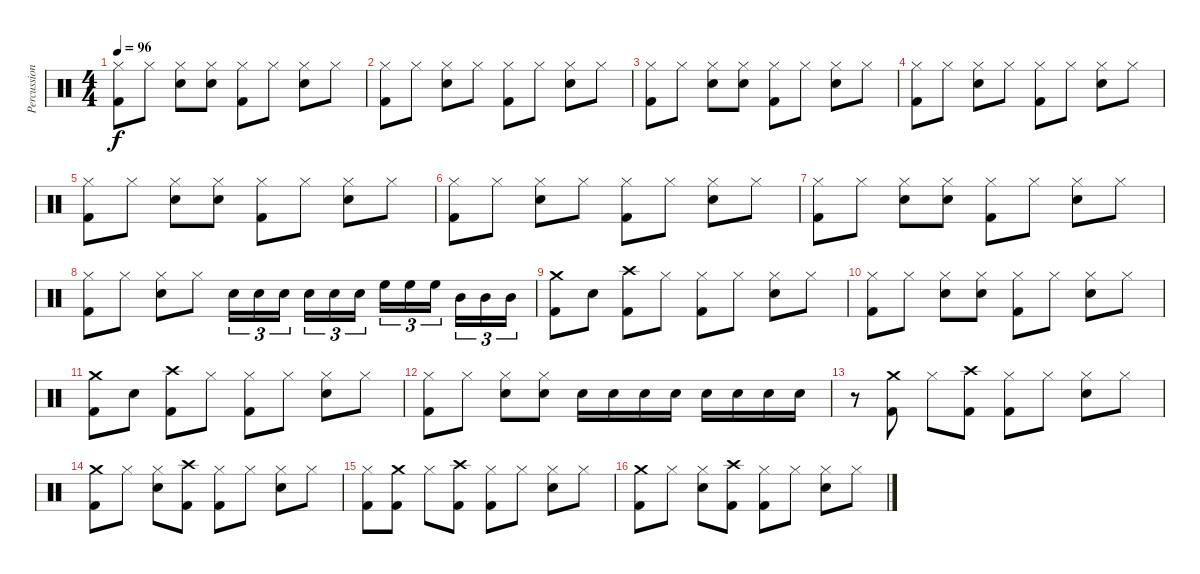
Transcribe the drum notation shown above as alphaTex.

\track ("Percussion" "Percussion") {instrument percussion}
\staff {score}
\articulation defaults
\ts (4 4)
\tempo 96
\clef neutral
\ks c
("Hi-Hat (closed)" "Kick (hit) 2").8{dy f} "Hi-Hat (closed)".8 ("Hi-Hat (closed)" "Snare (hit) 2").8 ("Hi-Hat (closed)" "Snare (hit) 2").8 ("Hi-Hat (closed)" "Kick (hit) 2").8 "Hi-Hat (closed)".8 ("Hi-Hat (closed)" "Snare (hit) 2").8 "Hi-Hat (closed)".8 |
("Hi-Hat (closed)" "Kick (hit) 2").8 "Hi-Hat (closed)".8 ("Hi-Hat (closed)" "Snare (hit) 2").8 "Hi-Hat (closed)".8 ("Hi-Hat (closed)" "Kick (hit) 2").8 "Hi-Hat (closed)".8 ("Hi-Hat (closed)" "Snare (hit) 2").8 "Hi-Hat (closed)".8 |
("Hi-Hat (closed)" "Kick (hit) 2").8 "Hi-Hat (closed)".8 ("Hi-Hat (closed)" "Snare (hit) 2").8 ("Hi-Hat (closed)" "Snare (hit) 2").8 ("Hi-Hat (closed)" "Kick (hit) 2").8 "Hi-Hat (closed)".8 ("Hi-Hat (closed)" "Snare (hit) 2").8 "Hi-Hat (closed)".8 |
("Hi-Hat (closed)" "Kick (hit) 2").8 "Hi-Hat (closed)".8 ("Hi-Hat (closed)" "Snare (hit) 2").8 "Hi-Hat (closed)".8 ("Hi-Hat (closed)" "Kick (hit) 2").8 "Hi-Hat (closed)".8 ("Hi-Hat (closed)" "Snare (hit) 2").8 "Hi-Hat (closed)".8 |
("Hi-Hat (closed)" "Kick (hit) 2").8 "Hi-Hat (closed)".8 ("Hi-Hat (closed)" "Snare (hit) 2").8 ("Hi-Hat (closed)" "Snare (hit) 2").8 ("Hi-Hat (closed)" "Kick (hit) 2").8 "Hi-Hat (closed)".8 ("Hi-Hat (closed)" "Snare (hit) 2").8 "Hi-Hat (closed)".8 |
("Hi-Hat (closed)" "Kick (hit) 2").8 "Hi-Hat (closed)".8 ("Hi-Hat (closed)" "Snare (hit) 2").8 "Hi-Hat (closed)".8 ("Hi-Hat (closed)" "Kick (hit) 2").8 "Hi-Hat (closed)".8 ("Hi-Hat (closed)" "Snare (hit) 2").8 "Hi-Hat (closed)".8 |
("Hi-Hat (closed)" "Kick (hit) 2").8 "Hi-Hat (closed)".8 ("Hi-Hat (closed)" "Snare (hit) 2").8 ("Hi-Hat (closed)" "Snare (hit) 2").8 ("Hi-Hat (closed)" "Kick (hit) 2").8 "Hi-Hat (closed)".8 ("Hi-Hat (closed)" "Snare (hit) 2").8 "Hi-Hat (closed)".8 |
("Hi-Hat (closed)" "Kick (hit) 2").8 "Hi-Hat (closed)".8 ("Hi-Hat (closed)" "Snare (hit) 2").8 "Hi-Hat (closed)".8 "Snare (hit) 2".16{tu (3 2)} "Snare (hit) 2".16{tu (3 2)} "Snare (hit) 2".16{tu (3 2)} "Snare (hit) 2".16{tu (3 2)} "Snare (hit) 2".16{tu (3 2)} "Snare (hit) 2".16{tu (3 2)} "High Floor Tom (hit)".16{tu (3 2)} "High Floor Tom (hit)".16{tu (3 2)} "High Floor Tom (hit)".16{tu (3 2)} "Mid Tom (hit)".16{tu (3 2)} "Mid Tom (hit)".16{tu (3 2)} "Mid Tom (hit)".16{tu (3 2)} |
("Crash medium (hit)" "Kick (hit) 2").8 "Snare (hit) 2".8 ("Crash high (hit)" "Kick (hit) 2").8 "Hi-Hat (closed)".8 ("Hi-Hat (closed)" "Kick (hit) 2").8 "Hi-Hat (closed)".8 ("Hi-Hat (closed)" "Snare (hit) 2").8 "Hi-Hat (closed)".8 |
("Hi-Hat (closed)" "Kick (hit) 2").8 "Hi-Hat (closed)".8 ("Hi-Hat (closed)" "Snare (hit) 2").8 ("Hi-Hat (closed)" "Snare (hit) 2").8 ("Hi-Hat (closed)" "Kick (hit) 2").8 "Hi-Hat (closed)".8 ("Hi-Hat (closed)" "Snare (hit) 2").8 "Hi-Hat (closed)".8 |
("Crash medium (hit)" "Kick (hit) 2").8 "Snare (hit) 2".8 ("Crash high (hit)" "Kick (hit) 2").8 "Hi-Hat (closed)".8 ("Hi-Hat (closed)" "Kick (hit) 2").8 "Hi-Hat (closed)".8 ("Hi-Hat (closed)" "Snare (hit) 2").8 "Hi-Hat (closed)".8 |
("Hi-Hat (closed)" "Kick (hit) 2").8 "Hi-Hat (closed)".8 ("Hi-Hat (closed)" "Snare (hit) 2").8 ("Hi-Hat (closed)" "Snare (hit) 2").8 "Snare (hit) 2".16 "Snare (hit) 2".16 "Snare (hit) 2".16 "Snare (hit) 2".16 "Snare (hit) 2".16 "Snare (hit) 2".16 "Snare (hit) 2".16 "Snare (hit) 2".16 |
r.8 ("Crash medium (hit)" "Kick (hit) 2").8 "Hi-Hat (closed)".8 ("Crash high (hit)" "Kick (hit) 2").8 ("Hi-Hat (closed)" "Kick (hit) 2").8 "Hi-Hat (closed)".8 ("Hi-Hat (closed)" "Snare (hit) 2").8 "Hi-Hat (closed)".8 |
("Crash medium (hit)" "Kick (hit) 2").8 "Hi-Hat (closed)".8 ("Hi-Hat (closed)" "Snare (hit) 2").8 ("Crash high (hit)" "Kick (hit) 2").8 ("Hi-Hat (closed)" "Kick (hit) 2").8 "Hi-Hat (closed)".8 ("Hi-Hat (closed)" "Snare (hit) 2").8 "Hi-Hat (closed)".8 |
("Kick (hit) 2" "Hi-Hat (closed)").8 ("Crash medium (hit)" "Kick (hit) 2").8 "Hi-Hat (closed)".8 ("Crash high (hit)" "Kick (hit) 2").8 ("Hi-Hat (closed)" "Kick (hit) 2").8 "Hi-Hat (closed)".8 ("Hi-Hat (closed)" "Snare (hit) 2").8 "Hi-Hat (closed)".8 |
("Crash medium (hit)" "Kick (hit) 2").8 "Hi-Hat (closed)".8 ("Hi-Hat (closed)" "Snare (hit) 2").8 ("Crash high (hit)" "Kick (hit) 2").8 ("Hi-Hat (closed)" "Kick (hit) 2").8 "Hi-Hat (closed)".8 ("Hi-Hat (closed)" "Snare (hit) 2").8 "Hi-Hat (closed)".8
